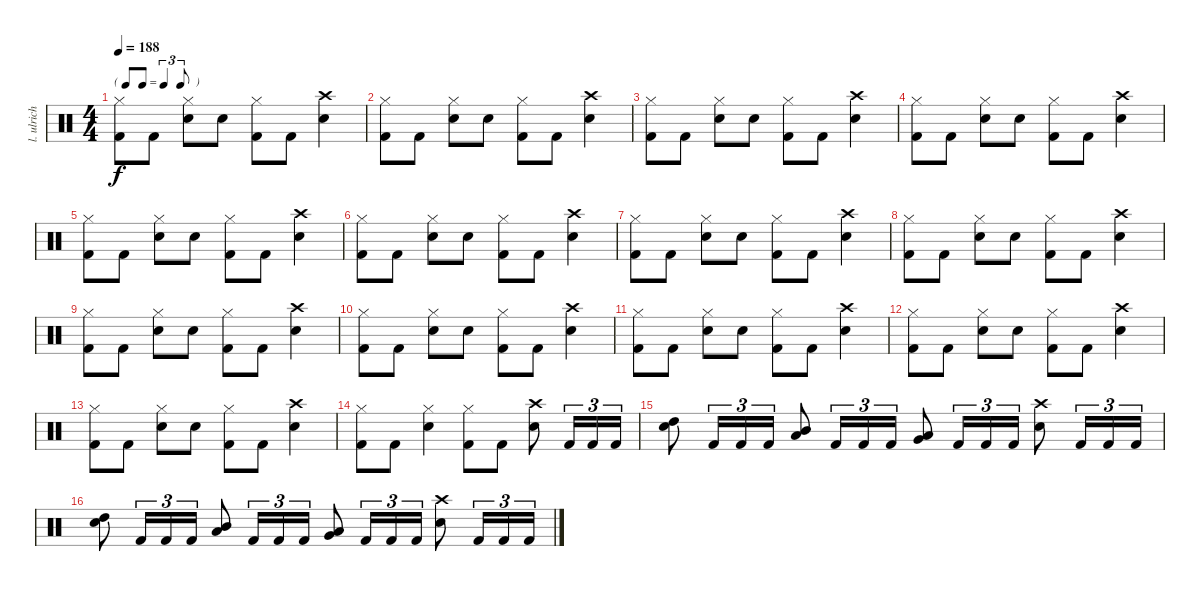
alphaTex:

\track ("l. ulrich - drums" "l. ulrich ") {instrument percussion}
\staff {score}
\articulation defaults
\ts (4 4)
\tf triplet8th
\tempo 188
\clef neutral
\ks c
("Hi-Hat (closed)" "Kick (hit) 2").8{dy f} "Kick (hit) 2".8 ("Hi-Hat (closed)" "Snare (hit) 2").8 "Snare (hit) 2".8 ("Hi-Hat (closed)" "Kick (hit) 2").8 "Kick (hit) 2".8 ("Crash high (hit)" "Snare (hit) 2").4 |
("Hi-Hat (closed)" "Kick (hit) 2").8 "Kick (hit) 2".8 ("Hi-Hat (closed)" "Snare (hit) 2").8 "Snare (hit) 2".8 ("Hi-Hat (closed)" "Kick (hit) 2").8 "Kick (hit) 2".8 ("Crash high (hit)" "Snare (hit) 2").4 |
("Hi-Hat (closed)" "Kick (hit) 2").8 "Kick (hit) 2".8 ("Hi-Hat (closed)" "Snare (hit) 2").8 "Snare (hit) 2".8 ("Hi-Hat (closed)" "Kick (hit) 2").8 "Kick (hit) 2".8 ("Crash high (hit)" "Snare (hit) 2").4 |
("Hi-Hat (closed)" "Kick (hit) 2").8 "Kick (hit) 2".8 ("Hi-Hat (closed)" "Snare (hit) 2").8 "Snare (hit) 2".8 ("Hi-Hat (closed)" "Kick (hit) 2").8 "Kick (hit) 2".8 ("Crash high (hit)" "Snare (hit) 2").4 |
("Hi-Hat (closed)" "Kick (hit) 2").8 "Kick (hit) 2".8 ("Hi-Hat (closed)" "Snare (hit) 2").8 "Snare (hit) 2".8 ("Hi-Hat (closed)" "Kick (hit) 2").8 "Kick (hit) 2".8 ("Crash high (hit)" "Snare (hit) 2").4 |
("Hi-Hat (closed)" "Kick (hit) 2").8 "Kick (hit) 2".8 ("Hi-Hat (closed)" "Snare (hit) 2").8 "Snare (hit) 2".8 ("Hi-Hat (closed)" "Kick (hit) 2").8 "Kick (hit) 2".8 ("Crash high (hit)" "Snare (hit) 2").4 |
("Hi-Hat (closed)" "Kick (hit) 2").8 "Kick (hit) 2".8 ("Hi-Hat (closed)" "Snare (hit) 2").8 "Snare (hit) 2".8 ("Hi-Hat (closed)" "Kick (hit) 2").8 "Kick (hit) 2".8 ("Crash high (hit)" "Snare (hit) 2").4 |
("Hi-Hat (closed)" "Kick (hit) 2").8 "Kick (hit) 2".8 ("Hi-Hat (closed)" "Snare (hit) 2").8 "Snare (hit) 2".8 ("Hi-Hat (closed)" "Kick (hit) 2").8 "Kick (hit) 2".8 ("Crash high (hit)" "Snare (hit) 2").4 |
("Hi-Hat (closed)" "Kick (hit) 2").8 "Kick (hit) 2".8 ("Hi-Hat (closed)" "Snare (hit) 2").8 "Snare (hit) 2".8 ("Hi-Hat (closed)" "Kick (hit) 2").8 "Kick (hit) 2".8 ("Crash high (hit)" "Snare (hit) 2").4 |
("Hi-Hat (closed)" "Kick (hit) 2").8 "Kick (hit) 2".8 ("Hi-Hat (closed)" "Snare (hit) 2").8 "Snare (hit) 2".8 ("Hi-Hat (closed)" "Kick (hit) 2").8 "Kick (hit) 2".8 ("Crash high (hit)" "Snare (hit) 2").4 |
("Hi-Hat (closed)" "Kick (hit) 2").8 "Kick (hit) 2".8 ("Hi-Hat (closed)" "Snare (hit) 2").8 "Snare (hit) 2".8 ("Hi-Hat (closed)" "Kick (hit) 2").8 "Kick (hit) 2".8 ("Crash high (hit)" "Snare (hit) 2").4 |
("Hi-Hat (closed)" "Kick (hit) 2").8 "Kick (hit) 2".8 ("Hi-Hat (closed)" "Snare (hit) 2").8 "Snare (hit) 2".8 ("Hi-Hat (closed)" "Kick (hit) 2").8 "Kick (hit) 2".8 ("Crash high (hit)" "Snare (hit) 2").4 |
("Hi-Hat (closed)" "Kick (hit) 2").8 "Kick (hit) 2".8 ("Hi-Hat (closed)" "Snare (hit) 2").8 "Snare (hit) 2".8 ("Hi-Hat (closed)" "Kick (hit) 2").8 "Kick (hit) 2".8 ("Crash high (hit)" "Snare (hit) 2").4 |
("Hi-Hat (closed)" "Kick (hit) 2").8 "Kick (hit) 2".8 ("Hi-Hat (closed)" "Snare (hit) 2").4 ("Hi-Hat (closed)" "Kick (hit) 2").8 "Kick (hit) 2".8 ("Crash high (hit)" "Snare (hit) 2").8 "Kick (hit) 2".16{tu (3 2)} "Kick (hit) 2".16{tu (3 2)} "Kick (hit) 2".16{tu (3 2)} |
("Snare (hit) 2" "High Tom (hit)").8 "Kick (hit) 2".16{tu (3 2)} "Kick (hit) 2".16{tu (3 2)} "Kick (hit) 2".16{tu (3 2)} ("Mid Tom (hit)" "Low Tom (hit)").8 "Kick (hit) 2".16{tu (3 2)} "Kick (hit) 2".16{tu (3 2)} "Kick (hit) 2".16{tu (3 2)} ("Low Tom (hit)" "Very Low Tom (hit)").8 "Kick (hit) 2".16{tu (3 2)} "Kick (hit) 2".16{tu (3 2)} "Kick (hit) 2".16{tu (3 2)} ("Crash high (hit)" "Snare (hit) 2").8 "Kick (hit) 2".16{tu (3 2)} "Kick (hit) 2".16{tu (3 2)} "Kick (hit) 2".16{tu (3 2)} |
("Snare (hit) 2" "High Tom (hit)").8 "Kick (hit) 2".16{tu (3 2)} "Kick (hit) 2".16{tu (3 2)} "Kick (hit) 2".16{tu (3 2)} ("Mid Tom (hit)" "Low Tom (hit)").8 "Kick (hit) 2".16{tu (3 2)} "Kick (hit) 2".16{tu (3 2)} "Kick (hit) 2".16{tu (3 2)} ("Low Tom (hit)" "Very Low Tom (hit)").8 "Kick (hit) 2".16{tu (3 2)} "Kick (hit) 2".16{tu (3 2)} "Kick (hit) 2".16{tu (3 2)} ("Crash high (hit)" "Snare (hit) 2").8 "Kick (hit) 2".16{tu (3 2)} "Kick (hit) 2".16{tu (3 2)} "Kick (hit) 2".16{tu (3 2)}
